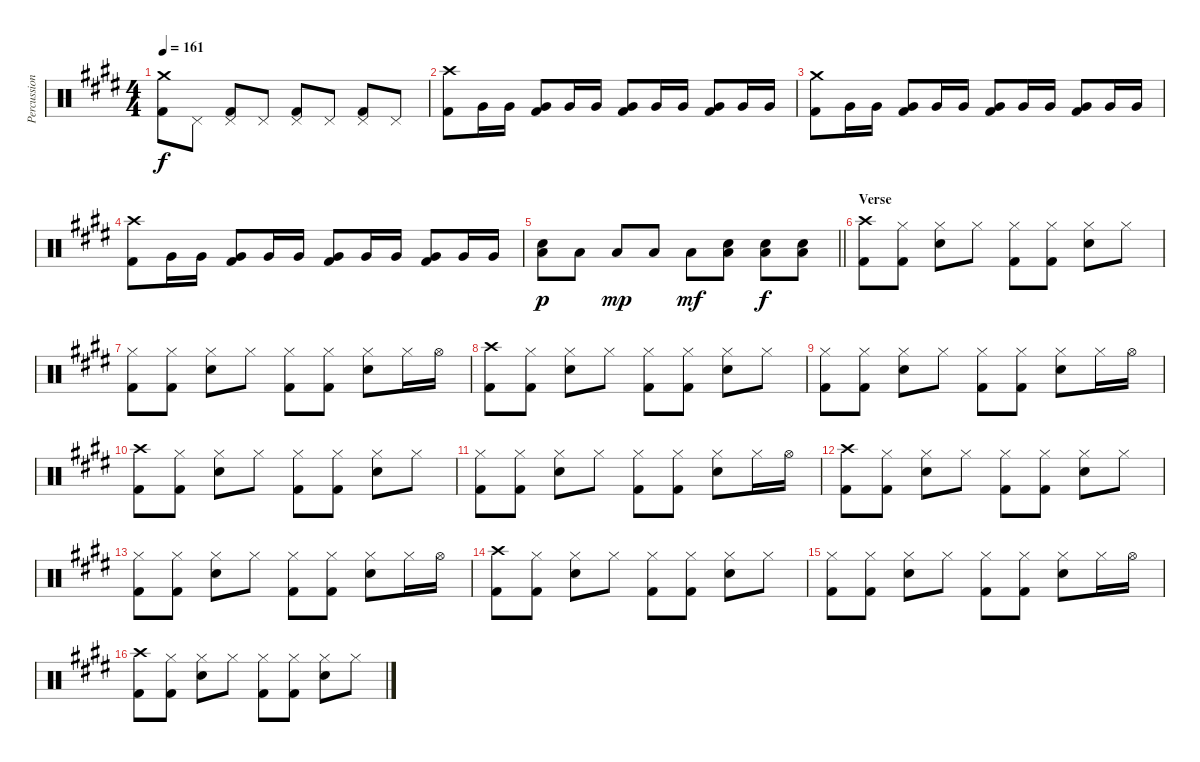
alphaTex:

\track ("Percussion" "Percussion") {instrument percussion}
\staff {score}
\articulation defaults
\ts (4 4)
\tempo 161
\clef neutral
\ks e
("Crash medium (hit)" "Kick (hit) 2").8{dy f} "Pedal Hi-Hat (hit)".8 ("Pedal Hi-Hat (hit)" "Kick (hit) 2").8 "Pedal Hi-Hat (hit)".8 ("Pedal Hi-Hat (hit)" "Kick (hit) 2").8 "Pedal Hi-Hat (hit)".8 ("Pedal Hi-Hat (hit)" "Kick (hit) 2").8 "Pedal Hi-Hat (hit)".8 |
("Crash high (hit)" "Kick (hit) 2").8 "Very Low Tom (hit)".16 "Very Low Tom (hit)".16 ("Very Low Tom (hit)" "Kick (hit) 2").8 "Very Low Tom (hit)".16 "Very Low Tom (hit)".16 ("Very Low Tom (hit)" "Kick (hit) 2").8 "Very Low Tom (hit)".16 "Very Low Tom (hit)".16 ("Very Low Tom (hit)" "Kick (hit) 2").8 "Very Low Tom (hit)".16 "Very Low Tom (hit)".16 |
("Crash medium (hit)" "Kick (hit) 2").8 "Very Low Tom (hit)".16 "Very Low Tom (hit)".16 ("Very Low Tom (hit)" "Kick (hit) 2").8 "Very Low Tom (hit)".16 "Very Low Tom (hit)".16 ("Very Low Tom (hit)" "Kick (hit) 2").8 "Very Low Tom (hit)".16 "Very Low Tom (hit)".16 ("Very Low Tom (hit)" "Kick (hit) 2").8 "Very Low Tom (hit)".16 "Very Low Tom (hit)".16 |
("Crash high (hit)" "Kick (hit) 2").8 "Very Low Tom (hit)".16 "Very Low Tom (hit)".16 ("Very Low Tom (hit)" "Kick (hit) 2").8 "Very Low Tom (hit)".16 "Very Low Tom (hit)".16 ("Very Low Tom (hit)" "Kick (hit) 2").8 "Very Low Tom (hit)".16 "Very Low Tom (hit)".16 ("Very Low Tom (hit)" "Kick (hit) 2").8 "Very Low Tom (hit)".16 "Very Low Tom (hit)".16 |
\barLineRight lightlight
("Snare (hit) 2" "Low Floor Tom (hit)").8{dy p} "Low Floor Tom (hit)".8 "Low Floor Tom (hit)".8{dy mp} "Low Floor Tom (hit)".8 "Low Floor Tom (hit)".8{dy mf} ("Snare (hit) 2" "Low Floor Tom (hit)").8 ("Snare (hit) 2" "Low Floor Tom (hit)").8{dy f} ("Snare (hit) 2" "Low Floor Tom (hit)").8 |
\section ("" "Verse")
("Crash high (hit)" "Kick (hit) 2").8 ("Hi-Hat (closed)" "Kick (hit) 2").8 ("Hi-Hat (closed)" "Snare (hit) 2").8 "Hi-Hat (closed)".8 ("Hi-Hat (closed)" "Kick (hit) 2").8 ("Hi-Hat (closed)" "Kick (hit) 2").8 ("Hi-Hat (closed)" "Snare (hit) 2").8 "Hi-Hat (closed)".8 |
("Hi-Hat (closed)" "Kick (hit) 2").8 ("Hi-Hat (closed)" "Kick (hit) 2").8 ("Hi-Hat (closed)" "Snare (hit) 2").8 "Hi-Hat (closed)".8 ("Hi-Hat (closed)" "Kick (hit) 2").8 ("Hi-Hat (closed)" "Kick (hit) 2").8 ("Hi-Hat (closed)" "Snare (hit) 2").8 "Hi-Hat (closed)".16 "Hi-Hat (open)".16 |
("Crash high (hit)" "Kick (hit) 2").8 ("Hi-Hat (closed)" "Kick (hit) 2").8 ("Hi-Hat (closed)" "Snare (hit) 2").8 "Hi-Hat (closed)".8 ("Hi-Hat (closed)" "Kick (hit) 2").8 ("Hi-Hat (closed)" "Kick (hit) 2").8 ("Hi-Hat (closed)" "Snare (hit) 2").8 "Hi-Hat (closed)".8 |
("Hi-Hat (closed)" "Kick (hit) 2").8 ("Hi-Hat (closed)" "Kick (hit) 2").8 ("Hi-Hat (closed)" "Snare (hit) 2").8 "Hi-Hat (closed)".8 ("Hi-Hat (closed)" "Kick (hit) 2").8 ("Hi-Hat (closed)" "Kick (hit) 2").8 ("Hi-Hat (closed)" "Snare (hit) 2").8 "Hi-Hat (closed)".16 "Hi-Hat (open)".16 |
("Crash high (hit)" "Kick (hit) 2").8 ("Hi-Hat (closed)" "Kick (hit) 2").8 ("Hi-Hat (closed)" "Snare (hit) 2").8 "Hi-Hat (closed)".8 ("Hi-Hat (closed)" "Kick (hit) 2").8 ("Hi-Hat (closed)" "Kick (hit) 2").8 ("Hi-Hat (closed)" "Snare (hit) 2").8 "Hi-Hat (closed)".8 |
("Hi-Hat (closed)" "Kick (hit) 2").8 ("Hi-Hat (closed)" "Kick (hit) 2").8 ("Hi-Hat (closed)" "Snare (hit) 2").8 "Hi-Hat (closed)".8 ("Hi-Hat (closed)" "Kick (hit) 2").8 ("Hi-Hat (closed)" "Kick (hit) 2").8 ("Hi-Hat (closed)" "Snare (hit) 2").8 "Hi-Hat (closed)".16 "Hi-Hat (open)".16 |
("Crash high (hit)" "Kick (hit) 2").8 ("Hi-Hat (closed)" "Kick (hit) 2").8 ("Hi-Hat (closed)" "Snare (hit) 2").8 "Hi-Hat (closed)".8 ("Hi-Hat (closed)" "Kick (hit) 2").8 ("Hi-Hat (closed)" "Kick (hit) 2").8 ("Hi-Hat (closed)" "Snare (hit) 2").8 "Hi-Hat (closed)".8 |
("Hi-Hat (closed)" "Kick (hit) 2").8 ("Hi-Hat (closed)" "Kick (hit) 2").8 ("Hi-Hat (closed)" "Snare (hit) 2").8 "Hi-Hat (closed)".8 ("Hi-Hat (closed)" "Kick (hit) 2").8 ("Hi-Hat (closed)" "Kick (hit) 2").8 ("Hi-Hat (closed)" "Snare (hit) 2").8 "Hi-Hat (closed)".16 "Hi-Hat (open)".16 |
("Crash high (hit)" "Kick (hit) 2").8 ("Hi-Hat (closed)" "Kick (hit) 2").8 ("Hi-Hat (closed)" "Snare (hit) 2").8 "Hi-Hat (closed)".8 ("Hi-Hat (closed)" "Kick (hit) 2").8 ("Hi-Hat (closed)" "Kick (hit) 2").8 ("Hi-Hat (closed)" "Snare (hit) 2").8 "Hi-Hat (closed)".8 |
("Hi-Hat (closed)" "Kick (hit) 2").8 ("Hi-Hat (closed)" "Kick (hit) 2").8 ("Hi-Hat (closed)" "Snare (hit) 2").8 "Hi-Hat (closed)".8 ("Hi-Hat (closed)" "Kick (hit) 2").8 ("Hi-Hat (closed)" "Kick (hit) 2").8 ("Hi-Hat (closed)" "Snare (hit) 2").8 "Hi-Hat (closed)".16 "Hi-Hat (open)".16 |
("Crash high (hit)" "Kick (hit) 2").8 ("Hi-Hat (closed)" "Kick (hit) 2").8 ("Hi-Hat (closed)" "Snare (hit) 2").8 "Hi-Hat (closed)".8 ("Hi-Hat (closed)" "Kick (hit) 2").8 ("Hi-Hat (closed)" "Kick (hit) 2").8 ("Hi-Hat (closed)" "Snare (hit) 2").8 "Hi-Hat (closed)".8
